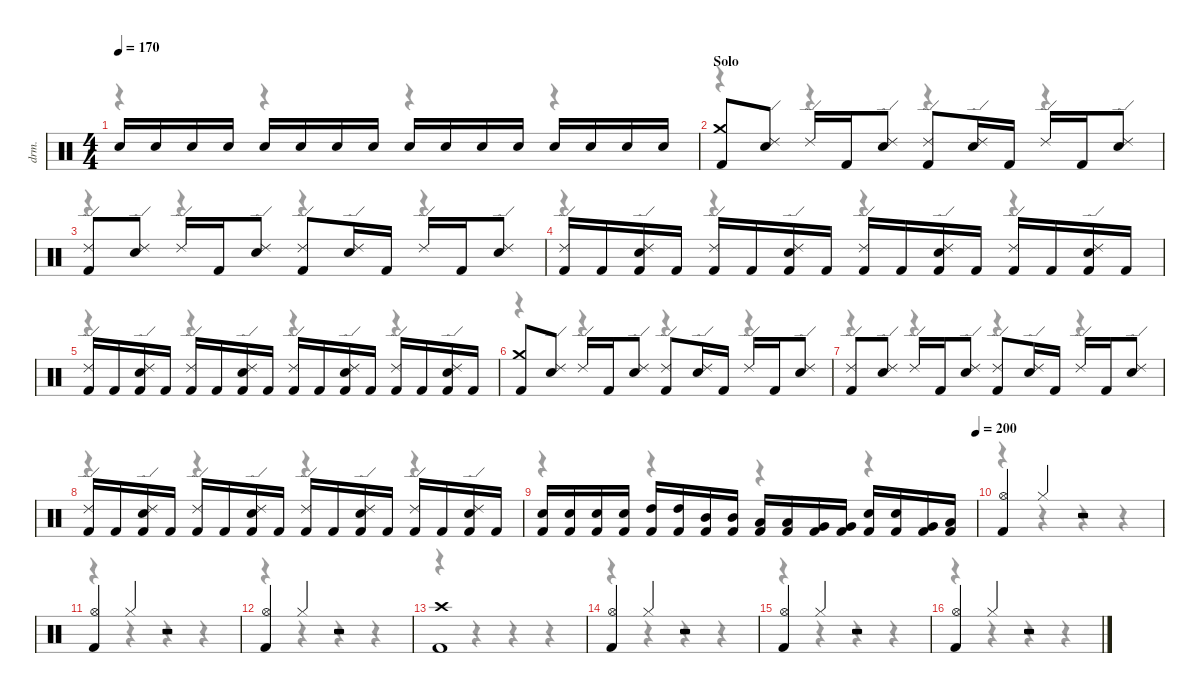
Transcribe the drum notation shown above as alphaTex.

\hideDynamics
\bracketExtendMode nobrackets
\otherSystemsTrackNameOrientation horizontal
\track ("Drums" "drm.") {instrument percussion}
\staff {score}
\articulation defaults
\voice
\ts (4 4)
\scale
1.09636
\tempo 170
\accidentals auto
\clef neutral
\ottava regular
\simile none
\ks c "Snare (hit) 2".16{dy f} "Snare (hit) 2".16 "Snare (hit) 2".16 "Snare (hit) 2".16 "Snare (hit) 2".16 "Snare (hit) 2".16 "Snare (hit) 2".16 "Snare (hit) 2".16 "Snare (hit) 2".16 "Snare (hit) 2".16 "Snare (hit) 2".16 "Snare (hit) 2".16 "Snare (hit) 2".16 "Snare (hit) 2".16 "Snare (hit) 2".16 "Snare (hit) 2".16
|
\section ("" "Solo")
\scale
0.980728 ("Kick (hit) 2" "Crash medium (hit)").8 ("Snare (hit) 2" "Ride (edge) 2").8 "Ride (edge) 2".16 "Kick (hit) 2".16 ("Snare (hit) 2" "Ride (edge) 2").8 ("Kick (hit) 2" "Ride (edge) 2").8 ("Snare (hit) 2" "Ride (edge) 2").16 "Kick (hit) 2".16 "Ride (edge) 2".16 "Kick (hit) 2".16 ("Snare (hit) 2" "Ride (edge) 2").8 |
\scale
0.980728 ("Kick (hit) 2" "Ride (edge) 2").8 ("Snare (hit) 2" "Ride (edge) 2").8 "Ride (edge) 2".16 "Kick (hit) 2".16 ("Snare (hit) 2" "Ride (edge) 2").8 ("Kick (hit) 2" "Ride (edge) 2").8 ("Snare (hit) 2" "Ride (edge) 2").16 "Kick (hit) 2".16 "Ride (edge) 2".16 "Kick (hit) 2".16 ("Snare (hit) 2" "Ride (edge) 2").8 |
\scale
0.980728 ("Kick (hit) 2" "Ride (edge) 2").16 "Kick (hit) 2".16 ("Kick (hit) 2" "Snare (hit) 2" "Ride (edge) 2").16 "Kick (hit) 2".16 ("Kick (hit) 2" "Ride (edge) 2").16 "Kick (hit) 2".16 ("Kick (hit) 2" "Snare (hit) 2" "Ride (edge) 2").16 "Kick (hit) 2".16 ("Kick (hit) 2" "Ride (edge) 2").16 "Kick (hit) 2".16 ("Kick (hit) 2" "Snare (hit) 2" "Ride (edge) 2").16 "Kick (hit) 2".16 ("Kick (hit) 2" "Ride (edge) 2").16 "Kick (hit) 2".16 ("Kick (hit) 2" "Snare (hit) 2" "Ride (edge) 2").16 "Kick (hit) 2".16 |
\scale
0.980728 ("Kick (hit) 2" "Ride (edge) 2").16 "Kick (hit) 2".16 ("Kick (hit) 2" "Snare (hit) 2" "Ride (edge) 2").16 "Kick (hit) 2".16 ("Kick (hit) 2" "Ride (edge) 2").16 "Kick (hit) 2".16 ("Kick (hit) 2" "Snare (hit) 2" "Ride (edge) 2").16 "Kick (hit) 2".16 ("Kick (hit) 2" "Ride (edge) 2").16 "Kick (hit) 2".16 ("Kick (hit) 2" "Snare (hit) 2" "Ride (edge) 2").16 "Kick (hit) 2".16 ("Kick (hit) 2" "Ride (edge) 2").16 "Kick (hit) 2".16 ("Kick (hit) 2" "Snare (hit) 2" "Ride (edge) 2").16 "Kick (hit) 2".16 |
\scale
0.980728 ("Kick (hit) 2" "Crash medium (hit)").8 ("Snare (hit) 2" "Ride (edge) 2").8 "Ride (edge) 2".16 "Kick (hit) 2".16 ("Snare (hit) 2" "Ride (edge) 2").8 ("Kick (hit) 2" "Ride (edge) 2").8 ("Snare (hit) 2" "Ride (edge) 2").16 "Kick (hit) 2".16 "Ride (edge) 2".16 "Kick (hit) 2".16 ("Snare (hit) 2" "Ride (edge) 2").8 |
\scale
1.07419 ("Kick (hit) 2" "Ride (edge) 2").8 ("Snare (hit) 2" "Ride (edge) 2").8 "Ride (edge) 2".16 "Kick (hit) 2".16 ("Snare (hit) 2" "Ride (edge) 2").8 ("Kick (hit) 2" "Ride (edge) 2").8 ("Snare (hit) 2" "Ride (edge) 2").16 "Kick (hit) 2".16 "Ride (edge) 2".16 "Kick (hit) 2".16 ("Snare (hit) 2" "Ride (edge) 2").8 |
\scale
0.985632 ("Kick (hit) 2" "Ride (edge) 2").16 "Kick (hit) 2".16 ("Kick (hit) 2" "Snare (hit) 2" "Ride (edge) 2").16 "Kick (hit) 2".16 ("Kick (hit) 2" "Ride (edge) 2").16 "Kick (hit) 2".16 ("Kick (hit) 2" "Snare (hit) 2" "Ride (edge) 2").16 "Kick (hit) 2".16 ("Kick (hit) 2" "Ride (edge) 2").16 "Kick (hit) 2".16 ("Kick (hit) 2" "Snare (hit) 2" "Ride (edge) 2").16 "Kick (hit) 2".16 ("Kick (hit) 2" "Ride (edge) 2").16 "Kick (hit) 2".16 ("Kick (hit) 2" "Snare (hit) 2" "Ride (edge) 2").16 "Kick (hit) 2".16 |
\scale
0.983278
\tempo (200 1)
("Kick (hit) 2" "Snare (hit) 2").16 ("Kick (hit) 2" "Snare (hit) 2").16 ("Kick (hit) 2" "Snare (hit) 2").16 ("Kick (hit) 2" "Snare (hit) 2").16 ("Kick (hit) 2" "High Tom (hit)").16 ("Kick (hit) 2" "High Tom (hit)").16 ("Kick (hit) 2" "Mid Tom (hit)").16 ("Kick (hit) 2" "Mid Tom (hit)").16 ("Kick (hit) 2" "Low Tom (hit)").16 ("Kick (hit) 2" "Low Tom (hit)").16 ("Kick (hit) 2" "Very Low Tom (hit)").16 ("Kick (hit) 2" "Very Low Tom (hit)").16 ("Kick (hit) 2" "Snare (hit) 2").16 ("Kick (hit) 2" "Snare (hit) 2").16 ("Kick (hit) 2" "Very Low Tom (hit)").16 ("Kick (hit) 2" "Low Floor Tom (hit)").16 |
\section ("" "")
\scale
0.985632 ("Kick (hit) 2" "Hi-Hat (open)").4 "Hi-Hat (closed)".4{dy ppp} r.2 |
\scale
0.985632 ("Kick (hit) 2" "Hi-Hat (open)").4{dy f} "Hi-Hat (closed)".4{dy ppp} r.2 |
\scale
0.985632 ("Kick (hit) 2" "Hi-Hat (open)").4{dy f} "Hi-Hat (closed)".4{dy ppp} r.2 |
\scale
1.08606 ("Kick (hit) 2" "Crash high (hit)").1{dy f} |
\scale
0.982788 ("Kick (hit) 2" "Hi-Hat (open)").4 "Hi-Hat (closed)".4{dy ppp} r.2 |
\scale
0.982788 ("Kick (hit) 2" "Hi-Hat (open)").4{dy f} "Hi-Hat (closed)".4{dy ppp} r.2 |
\scale
0.982788 ("Kick (hit) 2" "Hi-Hat (open)").4{dy f} "Hi-Hat (closed)".4{dy ppp} r.2
\voice
\clef neutral
\ottava regular
\simile none
\ks c
r.4{dy mf} r.4 r.4 r.4 |
r.4 r.4 r.4 r.4 |
r.4 r.4 r.4 r.4 |
r.4 r.4 r.4 r.4 |
r.4 r.4 r.4 r.4 |
r.4 r.4 r.4 r.4 |
r.4 r.4 r.4 r.4 |
r.4 r.4 r.4 r.4 |
r.4 r.4 r.4 r.4 |
r.4 r.4 r.4 r.4 |
r.4 r.4 r.4 r.4 |
r.4 r.4 r.4 r.4 |
r.4 r.4 r.4 r.4 |
r.4 r.4 r.4 r.4 |
r.4 r.4 r.4 r.4 |
r.4 r.4 r.4 r.4
